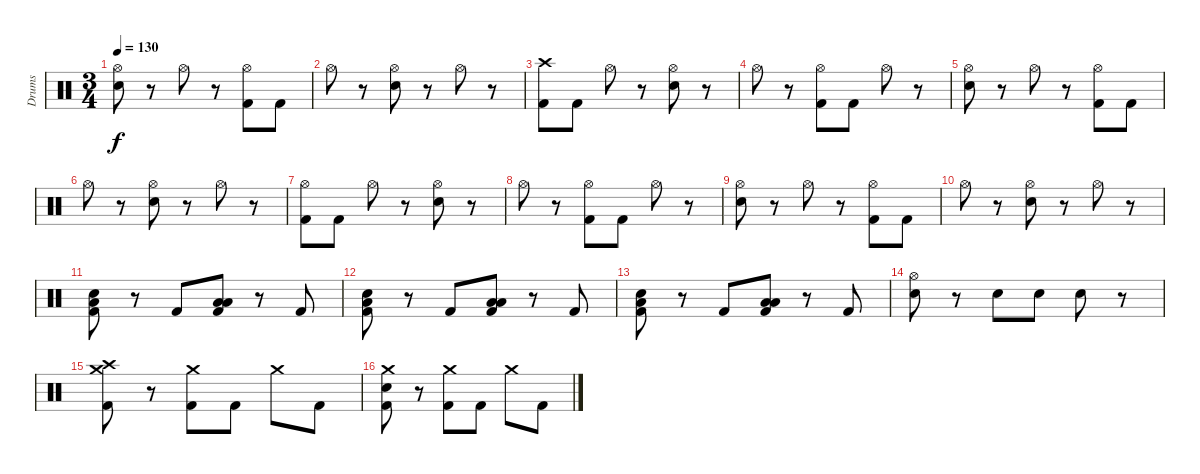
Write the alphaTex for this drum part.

\track ("Drums" "Drums") {instrument percussion}
\staff {score}
\articulation defaults
\ts (3 4)
\tempo 130
\clef neutral
\ks c
("Snare (hit) 2" "Hi-Hat (open)").8{dy f} r.8 "Hi-Hat (open)".8 r.8 ("Kick (hit) 2" "Hi-Hat (open)").8 "Kick (hit) 2".8 |
"Hi-Hat (open)".8 r.8 ("Snare (hit) 2" "Hi-Hat (open)").8 r.8 "Hi-Hat (open)".8 r.8 |
("Kick (hit) 2" "Crash high (hit)").8 "Kick (hit) 2".8 "Hi-Hat (open)".8 r.8 ("Snare (hit) 2" "Hi-Hat (open)").8 r.8 |
"Hi-Hat (open)".8 r.8 ("Kick (hit) 2" "Hi-Hat (open)").8 "Kick (hit) 2".8 "Hi-Hat (open)".8 r.8 |
("Snare (hit) 2" "Hi-Hat (open)").8 r.8 "Hi-Hat (open)".8 r.8 ("Kick (hit) 2" "Hi-Hat (open)").8 "Kick (hit) 2".8 |
"Hi-Hat (open)".8 r.8 ("Snare (hit) 2" "Hi-Hat (open)").8 r.8 "Hi-Hat (open)".8 r.8 |
("Kick (hit) 2" "Hi-Hat (open)").8 "Kick (hit) 2".8 "Hi-Hat (open)".8 r.8 ("Snare (hit) 2" "Hi-Hat (open)").8 r.8 |
"Hi-Hat (open)".8 r.8 ("Kick (hit) 2" "Hi-Hat (open)").8 "Kick (hit) 2".8 "Hi-Hat (open)".8 r.8 |
("Snare (hit) 2" "Hi-Hat (open)").8 r.8 "Hi-Hat (open)".8 r.8 ("Kick (hit) 2" "Hi-Hat (open)").8 "Kick (hit) 2".8 |
"Hi-Hat (open)".8 r.8 ("Snare (hit) 2" "Hi-Hat (open)").8 r.8 "Hi-Hat (open)".8 r.8 |
("Kick (hit) 2" "Low Floor Tom (hit)" "Snare (hit) 2").8 r.8 "Kick (hit) 2".8 ("Kick (hit) 2" "Low Floor Tom (hit)" "Low Tom (hit)").8 r.8 "Kick (hit) 2".8 |
("Kick (hit) 2" "Low Floor Tom (hit)" "Snare (hit) 2").8 r.8 "Kick (hit) 2".8 ("Kick (hit) 2" "Low Floor Tom (hit)" "Low Tom (hit)").8 r.8 "Kick (hit) 2".8 |
("Kick (hit) 2" "Low Floor Tom (hit)" "Snare (hit) 2").8 r.8 "Kick (hit) 2".8 ("Kick (hit) 2" "Low Floor Tom (hit)" "Low Tom (hit)").8 r.8 "Kick (hit) 2".8 |
("Snare (hit) 2" "Hi-Hat (open)").8 r.8 "Snare (hit) 2".8 "Snare (hit) 2".8 "Snare (hit) 2".8 r.8 |
("Kick (hit) 2" "Crash high (hit)" "Crash medium (hit)").8 r.8 ("Kick (hit) 2" "Crash medium (hit)").8 "Kick (hit) 2".8 "Crash medium (hit)".8 "Kick (hit) 2".8 |
("Kick (hit) 2" "Snare (hit) 2" "Crash medium (hit)").8 r.8 ("Kick (hit) 2" "Crash medium (hit)").8 "Kick (hit) 2".8 "Crash medium (hit)".8 "Kick (hit) 2".8
